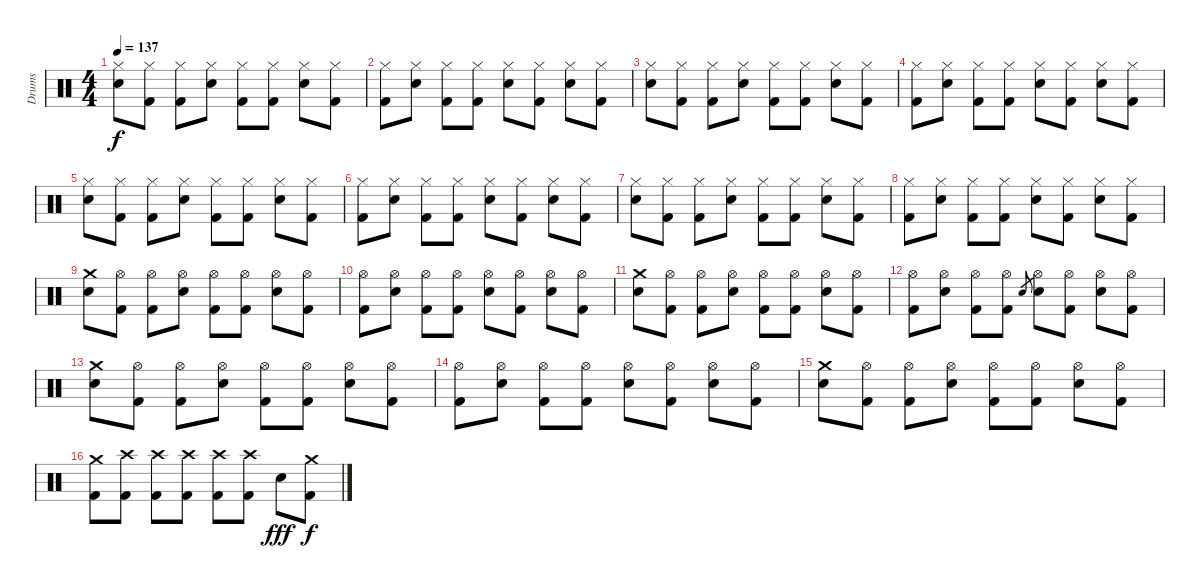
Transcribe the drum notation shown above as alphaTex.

\track ("Drums" "Drums") {instrument percussion}
\staff {score}
\articulation defaults
\ts (4 4)
\tempo 137
\clef neutral
\ks c
("Hi-Hat (closed)" "Electric Snare (hit)").8{dy f} ("Hi-Hat (closed)" "Kick (hit) 2").8 ("Hi-Hat (closed)" "Kick (hit) 2").8 ("Hi-Hat (closed)" "Electric Snare (hit)").8 ("Hi-Hat (closed)" "Kick (hit) 2").8 ("Hi-Hat (closed)" "Kick (hit) 2").8 ("Hi-Hat (closed)" "Electric Snare (hit)").8 ("Hi-Hat (closed)" "Kick (hit) 2").8 |
("Hi-Hat (closed)" "Kick (hit) 2").8 ("Hi-Hat (closed)" "Electric Snare (hit)").8 ("Hi-Hat (closed)" "Kick (hit) 2").8 ("Hi-Hat (closed)" "Kick (hit) 2").8 ("Hi-Hat (closed)" "Electric Snare (hit)").8 ("Hi-Hat (closed)" "Kick (hit) 2").8 ("Hi-Hat (closed)" "Electric Snare (hit)").8 ("Hi-Hat (closed)" "Kick (hit) 2").8 |
("Hi-Hat (closed)" "Electric Snare (hit)").8 ("Hi-Hat (closed)" "Kick (hit) 2").8 ("Hi-Hat (closed)" "Kick (hit) 2").8 ("Hi-Hat (closed)" "Electric Snare (hit)").8 ("Hi-Hat (closed)" "Kick (hit) 2").8 ("Hi-Hat (closed)" "Kick (hit) 2").8 ("Hi-Hat (closed)" "Electric Snare (hit)").8 ("Hi-Hat (closed)" "Kick (hit) 2").8 |
("Hi-Hat (closed)" "Kick (hit) 2").8 ("Hi-Hat (closed)" "Electric Snare (hit)").8 ("Hi-Hat (closed)" "Kick (hit) 2").8 ("Hi-Hat (closed)" "Kick (hit) 2").8 ("Hi-Hat (closed)" "Electric Snare (hit)").8 ("Hi-Hat (closed)" "Kick (hit) 2").8 ("Hi-Hat (closed)" "Electric Snare (hit)").8 ("Hi-Hat (closed)" "Kick (hit) 2").8 |
("Hi-Hat (closed)" "Electric Snare (hit)").8 ("Hi-Hat (closed)" "Kick (hit) 2").8 ("Hi-Hat (closed)" "Kick (hit) 2").8 ("Hi-Hat (closed)" "Electric Snare (hit)").8 ("Hi-Hat (closed)" "Kick (hit) 2").8 ("Hi-Hat (closed)" "Kick (hit) 2").8 ("Hi-Hat (closed)" "Electric Snare (hit)").8 ("Hi-Hat (closed)" "Kick (hit) 2").8 |
("Hi-Hat (closed)" "Kick (hit) 2").8 ("Hi-Hat (closed)" "Electric Snare (hit)").8 ("Hi-Hat (closed)" "Kick (hit) 2").8 ("Hi-Hat (closed)" "Kick (hit) 2").8 ("Hi-Hat (closed)" "Electric Snare (hit)").8 ("Hi-Hat (closed)" "Kick (hit) 2").8 ("Hi-Hat (closed)" "Electric Snare (hit)").8 ("Hi-Hat (closed)" "Kick (hit) 2").8 |
("Hi-Hat (closed)" "Electric Snare (hit)").8 ("Hi-Hat (closed)" "Kick (hit) 2").8 ("Hi-Hat (closed)" "Kick (hit) 2").8 ("Hi-Hat (closed)" "Electric Snare (hit)").8 ("Hi-Hat (closed)" "Kick (hit) 2").8 ("Hi-Hat (closed)" "Kick (hit) 2").8 ("Hi-Hat (closed)" "Electric Snare (hit)").8 ("Hi-Hat (closed)" "Kick (hit) 2").8 |
("Hi-Hat (closed)" "Kick (hit) 2").8 ("Hi-Hat (closed)" "Electric Snare (hit)").8 ("Hi-Hat (closed)" "Kick (hit) 2").8 ("Hi-Hat (closed)" "Kick (hit) 2").8 ("Hi-Hat (closed)" "Electric Snare (hit)").8 ("Hi-Hat (closed)" "Kick (hit) 2").8 ("Hi-Hat (closed)" "Electric Snare (hit)").8 ("Hi-Hat (closed)" "Kick (hit) 2").8 |
("Crash medium (hit)" "Electric Snare (hit)").8 ("Hi-Hat (open)" "Kick (hit) 2").8 ("Hi-Hat (open)" "Kick (hit) 2").8 ("Hi-Hat (open)" "Electric Snare (hit)").8 ("Hi-Hat (open)" "Kick (hit) 2").8 ("Hi-Hat (open)" "Kick (hit) 2").8 ("Hi-Hat (open)" "Electric Snare (hit)").8 ("Hi-Hat (open)" "Kick (hit) 2").8 |
("Hi-Hat (open)" "Kick (hit) 2").8 ("Hi-Hat (open)" "Electric Snare (hit)").8 ("Hi-Hat (open)" "Kick (hit) 2").8 ("Hi-Hat (open)" "Kick (hit) 2").8 ("Hi-Hat (open)" "Electric Snare (hit)").8 ("Hi-Hat (open)" "Kick (hit) 2").8 ("Hi-Hat (open)" "Electric Snare (hit)").8 ("Hi-Hat (open)" "Kick (hit) 2").8 |
("Crash medium (hit)" "Electric Snare (hit)").8 ("Hi-Hat (open)" "Kick (hit) 2").8 ("Hi-Hat (open)" "Kick (hit) 2").8 ("Hi-Hat (open)" "Electric Snare (hit)").8 ("Hi-Hat (open)" "Kick (hit) 2").8 ("Hi-Hat (open)" "Kick (hit) 2").8 ("Hi-Hat (open)" "Electric Snare (hit)").8 ("Hi-Hat (open)" "Kick (hit) 2").8 |
("Hi-Hat (open)" "Kick (hit) 2").8 ("Hi-Hat (open)" "Electric Snare (hit)").8 ("Hi-Hat (open)" "Kick (hit) 2").8 ("Hi-Hat (open)" "Kick (hit) 2").8 "Electric Snare (hit)".8{gr} ("Hi-Hat (open)" "Electric Snare (hit)").8 ("Hi-Hat (open)" "Kick (hit) 2").8 ("Hi-Hat (open)" "Electric Snare (hit)").8 ("Hi-Hat (open)" "Kick (hit) 2").8 |
("Crash medium (hit)" "Electric Snare (hit)").8 ("Hi-Hat (open)" "Kick (hit) 2").8 ("Hi-Hat (open)" "Kick (hit) 2").8 ("Hi-Hat (open)" "Electric Snare (hit)").8 ("Hi-Hat (open)" "Kick (hit) 2").8 ("Hi-Hat (open)" "Kick (hit) 2").8 ("Hi-Hat (open)" "Electric Snare (hit)").8 ("Hi-Hat (open)" "Kick (hit) 2").8 |
("Hi-Hat (open)" "Kick (hit) 2").8 ("Hi-Hat (open)" "Electric Snare (hit)").8 ("Hi-Hat (open)" "Kick (hit) 2").8 ("Hi-Hat (open)" "Kick (hit) 2").8 ("Hi-Hat (open)" "Electric Snare (hit)").8 ("Hi-Hat (open)" "Kick (hit) 2").8 ("Hi-Hat (open)" "Electric Snare (hit)").8 ("Hi-Hat (open)" "Kick (hit) 2").8 |
("Crash medium (hit)" "Electric Snare (hit)").8 ("Hi-Hat (open)" "Kick (hit) 2").8 ("Hi-Hat (open)" "Kick (hit) 2").8 ("Hi-Hat (open)" "Electric Snare (hit)").8 ("Hi-Hat (open)" "Kick (hit) 2").8 ("Hi-Hat (open)" "Kick (hit) 2").8 ("Hi-Hat (open)" "Electric Snare (hit)").8 ("Hi-Hat (open)" "Kick (hit) 2").8 |
("Crash medium (hit)" "Kick (hit) 2").8 ("Crash high (hit)" "Kick (hit) 2").8 ("Crash high (hit)" "Kick (hit) 2").8 ("Crash high (hit)" "Kick (hit) 2").8 ("Crash high (hit)" "Kick (hit) 2").8 ("Crash high (hit)" "Kick (hit) 2").8 "Electric Snare (hit)".8{dy fff} ("Crash medium (hit)" "Kick (hit) 2").8{dy f}
